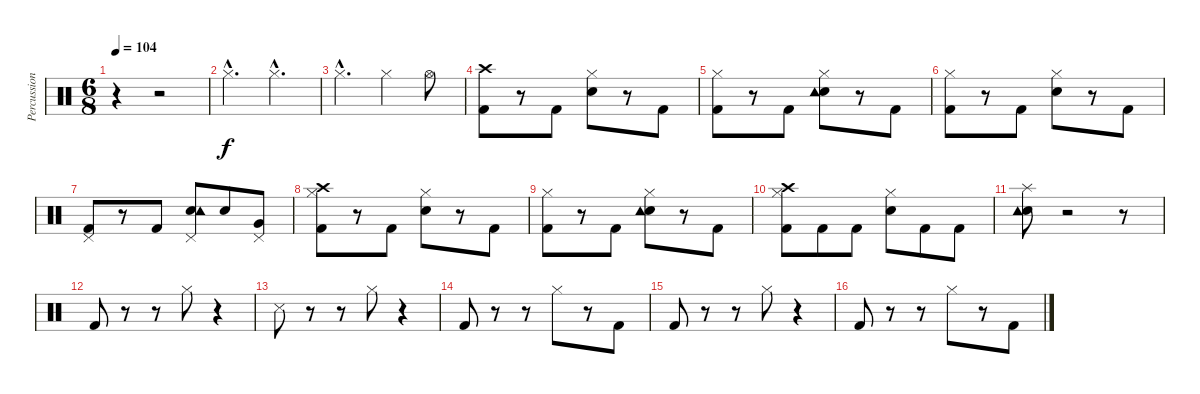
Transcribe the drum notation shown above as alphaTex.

\track ("Percussion" "Percussion") {instrument percussion}
\staff {score}
\articulation defaults
\ts (6 8)
\tempo 104
\clef neutral
\ks c
r.4{dy f} r.2 |
"Hi-Hat (closed)"{hac}.4{d} "Hi-Hat (closed)"{hac}.4{d} |
"Hi-Hat (closed)"{hac}.4{d} "Hi-Hat (closed)".4 "Hi-Hat (open)".8 |
("Crash high (hit)" "Kick (hit) 2").8 r.8 "Kick (hit) 2".8 ("Hi-Hat (closed)" "Snare (hit) 2").8 r.8 "Kick (hit) 2".8 |
("Hi-Hat (closed)" "Kick (hit) 2").8 r.8 "Kick (hit) 2".8 ("Hi-Hat (closed)" "Snare (hit) 2" "Tambourine (hit)").8 r.8 "Kick (hit) 2".8 |
("Hi-Hat (closed)" "Kick (hit) 2").8 r.8 "Kick (hit) 2".8 ("Hi-Hat (closed)" "Snare (hit) 2").8 r.8 "Kick (hit) 2".8 |
("Pedal Hi-Hat (hit)" "Kick (hit) 2").8 r.8 "Kick (hit) 2".8 ("Pedal Hi-Hat (hit)" "Snare (hit) 2" "Tambourine (hit)").8 "Snare (hit) 2".8 ("Pedal Hi-Hat (hit)" "Very Low Tom (hit)").8 |
("Hi-Hat (closed)" "Kick (hit) 2" "Crash high (hit)").8 r.8 "Kick (hit) 2".8 ("Hi-Hat (closed)" "Snare (hit) 2").8 r.8 "Kick (hit) 2".8 |
("Hi-Hat (closed)" "Kick (hit) 2").8 r.8 "Kick (hit) 2".8 ("Hi-Hat (closed)" "Snare (hit) 2" "Tambourine (hit)").8 r.8 "Kick (hit) 2".8 |
("Hi-Hat (closed)" "Kick (hit) 2" "Crash high (hit)").8 "Kick (hit) 2".8 "Kick (hit) 2".8 ("Hi-Hat (closed)" "Snare (hit) 2").8 "Kick (hit) 2".8 "Kick (hit) 2".8 |
("Splash (hit)" "Electric Snare (hit)" "Tambourine (hit)").8 r.2 r.8 |
"Kick (hit) 2".8 r.8 r.8 "Hi-Hat (closed)".8 r.4 |
"Snare (side stick) 3".8 r.8 r.8 "Hi-Hat (closed)".8 r.4 |
"Kick (hit) 2".8 r.8 r.8 "Hi-Hat (closed)".8 r.8 "Kick (hit) 2".8 |
"Kick (hit) 2".8 r.8 r.8 "Hi-Hat (closed)".8 r.4 |
"Kick (hit) 2".8 r.8 r.8 "Hi-Hat (closed)".8 r.8 "Kick (hit) 2".8
